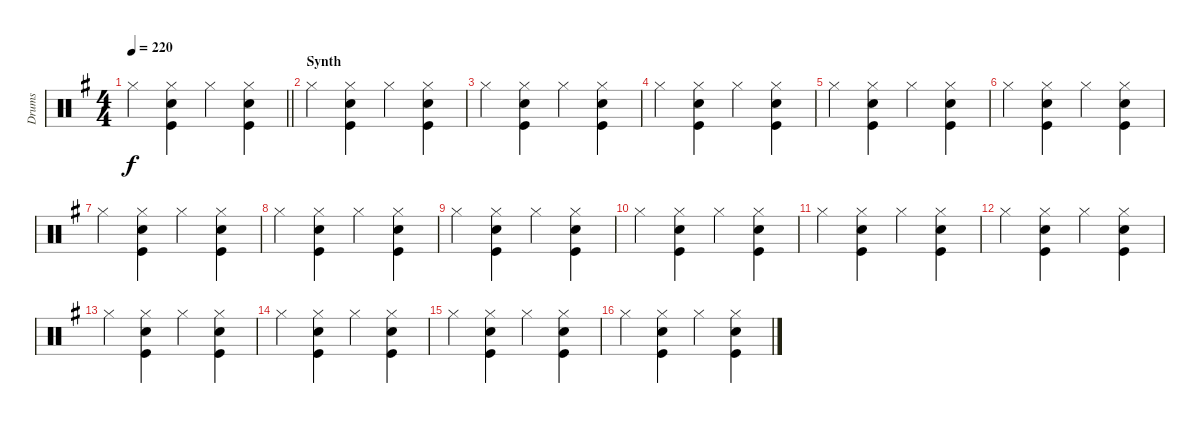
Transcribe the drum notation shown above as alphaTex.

\track ("Drums" "Drums") {instrument percussion}
\staff {score}
\articulation defaults
\ts (4 4)
\tempo 220
\clef neutral
\barLineRight lightlight
\ks g "Hi-Hat (closed)".4{dy f}
("Hi-Hat (closed)" "Snare (hit) 2" "Kick (hit)").4 "Hi-Hat (closed)".4 ("Hi-Hat (closed)" "Snare (hit) 2" "Kick (hit)").4 |
\section ("" "Synth")
"Hi-Hat (closed)".4 ("Hi-Hat (closed)" "Snare (hit) 2" "Kick (hit)").4 "Hi-Hat (closed)".4 ("Hi-Hat (closed)" "Snare (hit) 2" "Kick (hit)").4 |
"Hi-Hat (closed)".4 ("Hi-Hat (closed)" "Snare (hit) 2" "Kick (hit)").4 "Hi-Hat (closed)".4 ("Hi-Hat (closed)" "Snare (hit) 2" "Kick (hit)").4 |
"Hi-Hat (closed)".4 ("Hi-Hat (closed)" "Snare (hit) 2" "Kick (hit)").4 "Hi-Hat (closed)".4 ("Hi-Hat (closed)" "Snare (hit) 2" "Kick (hit)").4 |
"Hi-Hat (closed)".4 ("Hi-Hat (closed)" "Snare (hit) 2" "Kick (hit)").4 "Hi-Hat (closed)".4 ("Hi-Hat (closed)" "Snare (hit) 2" "Kick (hit)").4 |
"Hi-Hat (closed)".4 ("Hi-Hat (closed)" "Snare (hit) 2" "Kick (hit)").4 "Hi-Hat (closed)".4 ("Hi-Hat (closed)" "Snare (hit) 2" "Kick (hit)").4 |
"Hi-Hat (closed)".4 ("Hi-Hat (closed)" "Snare (hit) 2" "Kick (hit)").4 "Hi-Hat (closed)".4 ("Hi-Hat (closed)" "Snare (hit) 2" "Kick (hit)").4 |
"Hi-Hat (closed)".4 ("Hi-Hat (closed)" "Snare (hit) 2" "Kick (hit)").4 "Hi-Hat (closed)".4 ("Hi-Hat (closed)" "Snare (hit) 2" "Kick (hit)").4 |
"Hi-Hat (closed)".4 ("Hi-Hat (closed)" "Snare (hit) 2" "Kick (hit)").4 "Hi-Hat (closed)".4 ("Hi-Hat (closed)" "Snare (hit) 2" "Kick (hit)").4 |
"Hi-Hat (closed)".4 ("Hi-Hat (closed)" "Snare (hit) 2" "Kick (hit)").4 "Hi-Hat (closed)".4 ("Hi-Hat (closed)" "Snare (hit) 2" "Kick (hit)").4 |
"Hi-Hat (closed)".4 ("Hi-Hat (closed)" "Snare (hit) 2" "Kick (hit)").4 "Hi-Hat (closed)".4 ("Hi-Hat (closed)" "Snare (hit) 2" "Kick (hit)").4 |
"Hi-Hat (closed)".4 ("Hi-Hat (closed)" "Snare (hit) 2" "Kick (hit)").4 "Hi-Hat (closed)".4 ("Hi-Hat (closed)" "Snare (hit) 2" "Kick (hit)").4 |
"Hi-Hat (closed)".4 ("Hi-Hat (closed)" "Snare (hit) 2" "Kick (hit)").4 "Hi-Hat (closed)".4 ("Hi-Hat (closed)" "Snare (hit) 2" "Kick (hit)").4 |
"Hi-Hat (closed)".4 ("Hi-Hat (closed)" "Snare (hit) 2" "Kick (hit)").4 "Hi-Hat (closed)".4 ("Hi-Hat (closed)" "Snare (hit) 2" "Kick (hit)").4 |
"Hi-Hat (closed)".4 ("Hi-Hat (closed)" "Snare (hit) 2" "Kick (hit)").4 "Hi-Hat (closed)".4 ("Hi-Hat (closed)" "Snare (hit) 2" "Kick (hit)").4 |
"Hi-Hat (closed)".4 ("Hi-Hat (closed)" "Snare (hit) 2" "Kick (hit)").4 "Hi-Hat (closed)".4 ("Hi-Hat (closed)" "Snare (hit) 2" "Kick (hit)").4
